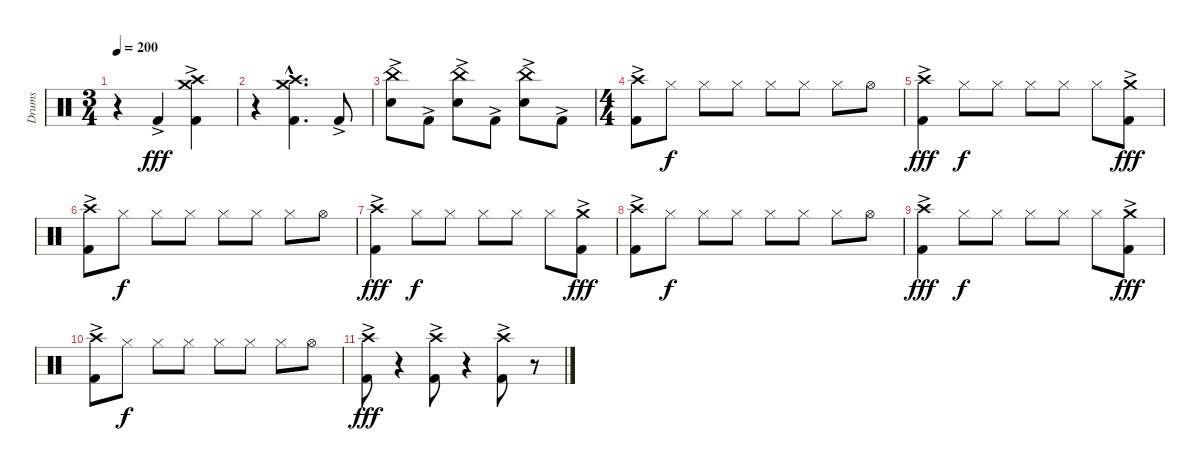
\track ("Drums" "Drums") {instrument percussion}
\staff {score}
\articulation defaults
\ts (3 4)
\tempo 200
\clef neutral
\ks c
r.4{dy fff} "Kick (hit) 2"{ac}.4 ("Crash high (hit)" "Crash medium (hit)" "Kick (hit) 2"{ac}).4 |
r.4 ("Crash high (hit)"{hac} "Crash medium (hit)"{hac} "Kick (hit) 2"{hac}).4{d} "Kick (hit) 2"{ac}.8 |
("China (hit)"{ac} "Snare (hit) 2").8 "Kick (hit) 2"{ac}.8 ("China (hit)"{ac} "Snare (hit) 2").8 "Kick (hit) 2"{ac}.8 ("China (hit)"{ac} "Snare (hit) 2").8 "Kick (hit) 2"{ac}.8 |
\ts (4 4)
("Crash high (hit)" "Kick (hit) 2"{ac}).8 "Hi-Hat (closed)".8{dy f} "Hi-Hat (closed)".8 "Hi-Hat (closed)".8 "Hi-Hat (closed)".8 "Hi-Hat (closed)".8 "Hi-Hat (closed)".8 "Hi-Hat (open)".8 |
("Crash high (hit)" "Kick (hit) 2"{ac}).4{dy fff} "Hi-Hat (closed)".8{dy f} "Hi-Hat (closed)".8 "Hi-Hat (closed)".8 "Hi-Hat (closed)".8 "Hi-Hat (closed)".8 ("Crash medium (hit)" "Kick (hit) 2"{ac}).8{dy fff} |
("Crash high (hit)" "Kick (hit) 2"{ac}).8 "Hi-Hat (closed)".8{dy f} "Hi-Hat (closed)".8 "Hi-Hat (closed)".8 "Hi-Hat (closed)".8 "Hi-Hat (closed)".8 "Hi-Hat (closed)".8 "Hi-Hat (open)".8 |
("Crash high (hit)" "Kick (hit) 2"{ac}).4{dy fff} "Hi-Hat (closed)".8{dy f} "Hi-Hat (closed)".8 "Hi-Hat (closed)".8 "Hi-Hat (closed)".8 "Hi-Hat (closed)".8 ("Crash medium (hit)" "Kick (hit) 2"{ac}).8{dy fff} |
("Crash high (hit)" "Kick (hit) 2"{ac}).8 "Hi-Hat (closed)".8{dy f} "Hi-Hat (closed)".8 "Hi-Hat (closed)".8 "Hi-Hat (closed)".8 "Hi-Hat (closed)".8 "Hi-Hat (closed)".8 "Hi-Hat (open)".8 |
("Crash high (hit)" "Kick (hit) 2"{ac}).4{dy fff} "Hi-Hat (closed)".8{dy f} "Hi-Hat (closed)".8 "Hi-Hat (closed)".8 "Hi-Hat (closed)".8 "Hi-Hat (closed)".8 ("Crash medium (hit)" "Kick (hit) 2"{ac}).8{dy fff} |
("Crash high (hit)" "Kick (hit) 2"{ac}).8 "Hi-Hat (closed)".8{dy f} "Hi-Hat (closed)".8 "Hi-Hat (closed)".8 "Hi-Hat (closed)".8 "Hi-Hat (closed)".8 "Hi-Hat (closed)".8 "Hi-Hat (open)".8 |
("Crash high (hit)" "Kick (hit) 2"{ac}).8{dy fff} r.4 ("Crash high (hit)" "Kick (hit) 2"{ac}).8 r.4 ("Crash high (hit)" "Kick (hit) 2"{ac}).8 r.8
